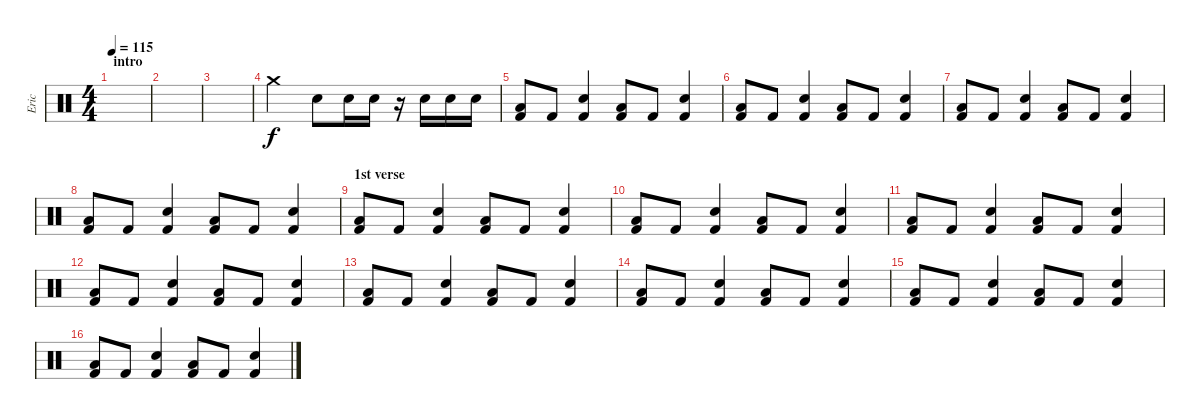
\track ("Eric" "Eric") {instrument percussion}
\staff {score}
\articulation defaults
\ts (4 4)
\section ("" "intro")
\tempo 115
\clef neutral
\ks c
|
|
|
"Crash medium (hit)".2 "Electric Snare (hit)".8 "Snare (hit) 2".16 "Snare (hit) 2".16 r.16 "Electric Snare (hit)".16 "Snare (hit) 2".16 "Snare (hit) 2".16 |
("Low Floor Tom (hit)" "Kick (hit) 2").8 "Kick (hit) 2".8 ("Snare (hit) 2" "Kick (hit) 2").4 ("Low Floor Tom (hit)" "Kick (hit) 2").8 "Kick (hit) 2".8 ("Snare (hit) 2" "Kick (hit) 2").4 |
("Low Floor Tom (hit)" "Kick (hit) 2").8 "Kick (hit) 2".8 ("Snare (hit) 2" "Kick (hit) 2").4 ("Low Floor Tom (hit)" "Kick (hit) 2").8 "Kick (hit) 2".8 ("Snare (hit) 2" "Kick (hit) 2").4 |
("Low Floor Tom (hit)" "Kick (hit) 2").8 "Kick (hit) 2".8 ("Snare (hit) 2" "Kick (hit) 2").4 ("Low Floor Tom (hit)" "Kick (hit) 2").8 "Kick (hit) 2".8 ("Snare (hit) 2" "Kick (hit) 2").4 |
("Low Floor Tom (hit)" "Kick (hit) 2").8 "Kick (hit) 2".8 ("Snare (hit) 2" "Kick (hit) 2").4 ("Low Floor Tom (hit)" "Kick (hit) 2").8 "Kick (hit) 2".8 ("Snare (hit) 2" "Kick (hit) 2").4 |
\section ("" "1st verse")
("Low Floor Tom (hit)" "Kick (hit) 2").8 "Kick (hit) 2".8 ("Snare (hit) 2" "Kick (hit) 2").4 ("Low Floor Tom (hit)" "Kick (hit) 2").8 "Kick (hit) 2".8 ("Snare (hit) 2" "Kick (hit) 2").4 |
("Low Floor Tom (hit)" "Kick (hit) 2").8 "Kick (hit) 2".8 ("Snare (hit) 2" "Kick (hit) 2").4 ("Low Floor Tom (hit)" "Kick (hit) 2").8 "Kick (hit) 2".8 ("Snare (hit) 2" "Kick (hit) 2").4 |
("Low Floor Tom (hit)" "Kick (hit) 2").8 "Kick (hit) 2".8 ("Snare (hit) 2" "Kick (hit) 2").4 ("Low Floor Tom (hit)" "Kick (hit) 2").8 "Kick (hit) 2".8 ("Snare (hit) 2" "Kick (hit) 2").4 |
("Low Floor Tom (hit)" "Kick (hit) 2").8 "Kick (hit) 2".8 ("Snare (hit) 2" "Kick (hit) 2").4 ("Low Floor Tom (hit)" "Kick (hit) 2").8 "Kick (hit) 2".8 ("Snare (hit) 2" "Kick (hit) 2").4 |
("Low Floor Tom (hit)" "Kick (hit) 2").8 "Kick (hit) 2".8 ("Snare (hit) 2" "Kick (hit) 2").4 ("Low Floor Tom (hit)" "Kick (hit) 2").8 "Kick (hit) 2".8 ("Snare (hit) 2" "Kick (hit) 2").4 |
("Low Floor Tom (hit)" "Kick (hit) 2").8 "Kick (hit) 2".8 ("Snare (hit) 2" "Kick (hit) 2").4 ("Low Floor Tom (hit)" "Kick (hit) 2").8 "Kick (hit) 2".8 ("Snare (hit) 2" "Kick (hit) 2").4 |
("Low Floor Tom (hit)" "Kick (hit) 2").8 "Kick (hit) 2".8 ("Snare (hit) 2" "Kick (hit) 2").4 ("Low Floor Tom (hit)" "Kick (hit) 2").8 "Kick (hit) 2".8 ("Snare (hit) 2" "Kick (hit) 2").4 |
("Low Floor Tom (hit)" "Kick (hit) 2").8 "Kick (hit) 2".8 ("Snare (hit) 2" "Kick (hit) 2").4 ("Low Floor Tom (hit)" "Kick (hit) 2").8 "Kick (hit) 2".8 ("Snare (hit) 2" "Kick (hit) 2").4
